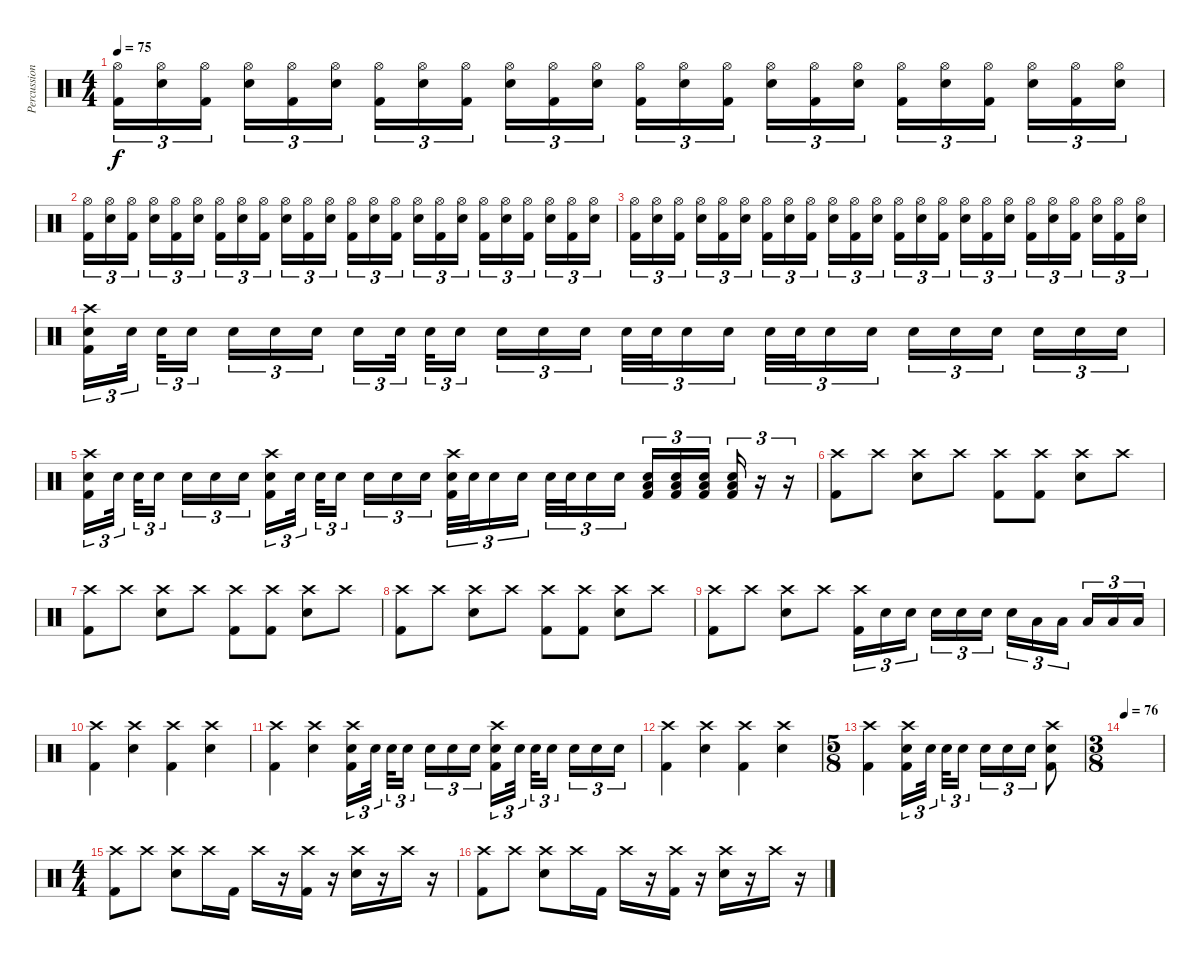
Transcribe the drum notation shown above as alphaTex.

\track ("Percussion" "Percussion") {instrument percussion}
\staff {score}
\articulation defaults
\ts (4 4)
\tempo 75
\clef neutral
\ks c
("Hi-Hat (open)" "Kick (hit) 2").16{tu (3 2) dy f} ("Hi-Hat (open)" "Electric Snare (hit)").16{tu (3 2)} ("Hi-Hat (open)" "Kick (hit) 2").16{tu (3 2) beam splitsecondary} ("Hi-Hat (open)" "Electric Snare (hit)").16{tu (3 2)} ("Hi-Hat (open)" "Kick (hit) 2").16{tu (3 2)} ("Hi-Hat (open)" "Electric Snare (hit)").16{tu (3 2)} ("Hi-Hat (open)" "Kick (hit) 2").16{tu (3 2)} ("Hi-Hat (open)" "Electric Snare (hit)").16{tu (3 2)} ("Hi-Hat (open)" "Kick (hit) 2").16{tu (3 2) beam splitsecondary} ("Hi-Hat (open)" "Electric Snare (hit)").16{tu (3 2)} ("Hi-Hat (open)" "Kick (hit) 2").16{tu (3 2)} ("Hi-Hat (open)" "Electric Snare (hit)").16{tu (3 2)} ("Hi-Hat (open)" "Kick (hit) 2").16{tu (3 2)} ("Hi-Hat (open)" "Electric Snare (hit)").16{tu (3 2)} ("Hi-Hat (open)" "Kick (hit) 2").16{tu (3 2) beam splitsecondary} ("Hi-Hat (open)" "Electric Snare (hit)").16{tu (3 2)} ("Hi-Hat (open)" "Kick (hit) 2").16{tu (3 2)} ("Hi-Hat (open)" "Electric Snare (hit)").16{tu (3 2)} ("Hi-Hat (open)" "Kick (hit) 2").16{tu (3 2)} ("Hi-Hat (open)" "Electric Snare (hit)").16{tu (3 2)} ("Hi-Hat (open)" "Kick (hit) 2").16{tu (3 2) beam splitsecondary} ("Hi-Hat (open)" "Electric Snare (hit)").16{tu (3 2)} ("Hi-Hat (open)" "Kick (hit) 2").16{tu (3 2)} ("Hi-Hat (open)" "Electric Snare (hit)").16{tu (3 2)} |
("Hi-Hat (open)" "Kick (hit) 2").16{tu (3 2)} ("Hi-Hat (open)" "Electric Snare (hit)").16{tu (3 2)} ("Hi-Hat (open)" "Kick (hit) 2").16{tu (3 2) beam splitsecondary} ("Hi-Hat (open)" "Electric Snare (hit)").16{tu (3 2)} ("Hi-Hat (open)" "Kick (hit) 2").16{tu (3 2)} ("Hi-Hat (open)" "Electric Snare (hit)").16{tu (3 2)} ("Hi-Hat (open)" "Kick (hit) 2").16{tu (3 2)} ("Hi-Hat (open)" "Electric Snare (hit)").16{tu (3 2)} ("Hi-Hat (open)" "Kick (hit) 2").16{tu (3 2) beam splitsecondary} ("Hi-Hat (open)" "Electric Snare (hit)").16{tu (3 2)} ("Hi-Hat (open)" "Kick (hit) 2").16{tu (3 2)} ("Hi-Hat (open)" "Electric Snare (hit)").16{tu (3 2)} ("Hi-Hat (open)" "Kick (hit) 2").16{tu (3 2)} ("Hi-Hat (open)" "Electric Snare (hit)").16{tu (3 2)} ("Hi-Hat (open)" "Kick (hit) 2").16{tu (3 2) beam splitsecondary} ("Hi-Hat (open)" "Electric Snare (hit)").16{tu (3 2)} ("Hi-Hat (open)" "Kick (hit) 2").16{tu (3 2)} ("Hi-Hat (open)" "Electric Snare (hit)").16{tu (3 2)} ("Hi-Hat (open)" "Kick (hit) 2").16{tu (3 2)} ("Hi-Hat (open)" "Electric Snare (hit)").16{tu (3 2)} ("Hi-Hat (open)" "Kick (hit) 2").16{tu (3 2) beam splitsecondary} ("Hi-Hat (open)" "Electric Snare (hit)").16{tu (3 2)} ("Hi-Hat (open)" "Kick (hit) 2").16{tu (3 2)} ("Hi-Hat (open)" "Electric Snare (hit)").16{tu (3 2)} |
("Hi-Hat (open)" "Kick (hit) 2").16{tu (3 2)} ("Hi-Hat (open)" "Electric Snare (hit)").16{tu (3 2)} ("Hi-Hat (open)" "Kick (hit) 2").16{tu (3 2) beam splitsecondary} ("Hi-Hat (open)" "Electric Snare (hit)").16{tu (3 2)} ("Hi-Hat (open)" "Kick (hit) 2").16{tu (3 2)} ("Hi-Hat (open)" "Electric Snare (hit)").16{tu (3 2)} ("Hi-Hat (open)" "Kick (hit) 2").16{tu (3 2)} ("Hi-Hat (open)" "Electric Snare (hit)").16{tu (3 2)} ("Hi-Hat (open)" "Kick (hit) 2").16{tu (3 2) beam splitsecondary} ("Hi-Hat (open)" "Electric Snare (hit)").16{tu (3 2)} ("Hi-Hat (open)" "Kick (hit) 2").16{tu (3 2)} ("Hi-Hat (open)" "Electric Snare (hit)").16{tu (3 2)} ("Hi-Hat (open)" "Kick (hit) 2").16{tu (3 2)} ("Hi-Hat (open)" "Electric Snare (hit)").16{tu (3 2)} ("Hi-Hat (open)" "Kick (hit) 2").16{tu (3 2) beam splitsecondary} ("Hi-Hat (open)" "Electric Snare (hit)").16{tu (3 2)} ("Hi-Hat (open)" "Kick (hit) 2").16{tu (3 2)} ("Hi-Hat (open)" "Electric Snare (hit)").16{tu (3 2)} ("Hi-Hat (open)" "Kick (hit) 2").16{tu (3 2)} ("Hi-Hat (open)" "Electric Snare (hit)").16{tu (3 2)} ("Hi-Hat (open)" "Kick (hit) 2").16{tu (3 2) beam splitsecondary} ("Hi-Hat (open)" "Electric Snare (hit)").16{tu (3 2)} ("Hi-Hat (open)" "Kick (hit) 2").16{tu (3 2)} ("Hi-Hat (open)" "Electric Snare (hit)").16{tu (3 2)} |
("Crash high (hit)" "Electric Snare (hit)" "Kick (hit) 2").16{tu (3 2)} "Electric Snare (hit)".32{tu (3 2) beam splitsecondary} "Electric Snare (hit)".32{tu (3 2)} "Electric Snare (hit)".16{tu (3 2) beam splitsecondary} "Electric Snare (hit)".16{tu (3 2)} "Electric Snare (hit)".16{tu (3 2)} "Electric Snare (hit)".16{tu (3 2)} "Electric Snare (hit)".16{tu (3 2)} "Electric Snare (hit)".32{tu (3 2) beam splitsecondary} "Electric Snare (hit)".32{tu (3 2)} "Electric Snare (hit)".16{tu (3 2) beam splitsecondary} "Electric Snare (hit)".16{tu (3 2)} "Electric Snare (hit)".16{tu (3 2)} "Electric Snare (hit)".16{tu (3 2)} "Electric Snare (hit)".32{tu (3 2)} "Electric Snare (hit)".32{tu (3 2)} "Electric Snare (hit)".16{tu (3 2)} "Electric Snare (hit)".16{tu (3 2) beam splitsecondary} "Electric Snare (hit)".32{tu (3 2)} "Electric Snare (hit)".32{tu (3 2)} "Electric Snare (hit)".16{tu (3 2)} "Electric Snare (hit)".16{tu (3 2)} "Electric Snare (hit)".16{tu (3 2)} "Electric Snare (hit)".16{tu (3 2)} "Electric Snare (hit)".16{tu (3 2) beam splitsecondary} "Electric Snare (hit)".16{tu (3 2)} "Electric Snare (hit)".16{tu (3 2)} "Electric Snare (hit)".16{tu (3 2)} |
("Crash high (hit)" "Electric Snare (hit)" "Kick (hit) 2").16{tu (3 2)} "Electric Snare (hit)".32{tu (3 2) beam splitsecondary} "Electric Snare (hit)".32{tu (3 2)} "Electric Snare (hit)".16{tu (3 2) beam splitsecondary} "Electric Snare (hit)".16{tu (3 2)} "Electric Snare (hit)".16{tu (3 2)} "Electric Snare (hit)".16{tu (3 2)} ("Crash high (hit)" "Electric Snare (hit)" "Kick (hit) 2").16{tu (3 2)} "Electric Snare (hit)".32{tu (3 2) beam splitsecondary} "Electric Snare (hit)".32{tu (3 2)} "Electric Snare (hit)".16{tu (3 2) beam splitsecondary} "Electric Snare (hit)".16{tu (3 2)} "Electric Snare (hit)".16{tu (3 2)} "Electric Snare (hit)".16{tu (3 2)} ("Crash high (hit)" "Electric Snare (hit)" "Kick (hit) 2").32{tu (3 2)} "Electric Snare (hit)".32{tu (3 2)} "Electric Snare (hit)".16{tu (3 2)} "Electric Snare (hit)".16{tu (3 2) beam splitsecondary} "Electric Snare (hit)".32{tu (3 2)} "Electric Snare (hit)".32{tu (3 2)} "Electric Snare (hit)".16{tu (3 2)} "Electric Snare (hit)".16{tu (3 2)} ("Low Floor Tom (hit)" "Electric Snare (hit)" "Kick (hit) 2").16{tu (3 2)} ("Low Floor Tom (hit)" "Electric Snare (hit)" "Kick (hit) 2").16{tu (3 2)} ("Low Floor Tom (hit)" "Electric Snare (hit)" "Kick (hit) 2").16{tu (3 2) beam splitsecondary} ("Low Floor Tom (hit)" "Electric Snare (hit)" "Kick (hit) 2").16{tu (3 2)} r.16{tu (3 2)} r.16{tu (3 2)} |
("Crash high (hit)" "Kick (hit) 2").8 "Crash high (hit)".8 ("Crash high (hit)" "Electric Snare (hit)").8 "Crash high (hit)".8 ("Crash high (hit)" "Kick (hit) 2").8 ("Crash high (hit)" "Kick (hit) 2").8 ("Crash high (hit)" "Electric Snare (hit)").8 "Crash high (hit)".8 |
("Crash high (hit)" "Kick (hit) 2").8 "Crash high (hit)".8 ("Crash high (hit)" "Electric Snare (hit)").8 "Crash high (hit)".8 ("Crash high (hit)" "Kick (hit) 2").8 ("Crash high (hit)" "Kick (hit) 2").8 ("Crash high (hit)" "Electric Snare (hit)").8 "Crash high (hit)".8 |
("Crash high (hit)" "Kick (hit) 2").8 "Crash high (hit)".8 ("Crash high (hit)" "Electric Snare (hit)").8 "Crash high (hit)".8 ("Crash high (hit)" "Kick (hit) 2").8 ("Crash high (hit)" "Kick (hit) 2").8 ("Crash high (hit)" "Electric Snare (hit)").8 "Crash high (hit)".8 |
("Crash high (hit)" "Kick (hit) 2").8 "Crash high (hit)".8 ("Crash high (hit)" "Electric Snare (hit)").8 "Crash high (hit)".8 ("Crash high (hit)" "Kick (hit) 2").16{tu (3 2)} "Electric Snare (hit)".16{tu (3 2)} "Electric Snare (hit)".16{tu (3 2) beam splitsecondary} "Electric Snare (hit)".16{tu (3 2)} "Electric Snare (hit)".16{tu (3 2)} "Electric Snare (hit)".16{tu (3 2)} "Electric Snare (hit)".16{tu (3 2)} "Low Tom (hit)".16{tu (3 2)} "Low Tom (hit)".16{tu (3 2) beam splitsecondary} "Low Floor Tom (hit)".16{tu (3 2)} "Low Floor Tom (hit)".16{tu (3 2)} "Low Floor Tom (hit)".16{tu (3 2)} |
("Crash high (hit)" "Kick (hit) 2").4 ("Crash high (hit)" "Electric Snare (hit)").4 ("Crash high (hit)" "Kick (hit) 2").4 ("Crash high (hit)" "Electric Snare (hit)").4 |
("Crash high (hit)" "Kick (hit) 2").4 ("Crash high (hit)" "Electric Snare (hit)").4 ("Crash high (hit)" "Electric Snare (hit)" "Kick (hit) 2").16{tu (3 2)} "Electric Snare (hit)".32{tu (3 2) beam splitsecondary} "Electric Snare (hit)".32{tu (3 2)} "Electric Snare (hit)".16{tu (3 2) beam splitsecondary} "Electric Snare (hit)".16{tu (3 2)} "Electric Snare (hit)".16{tu (3 2)} "Electric Snare (hit)".16{tu (3 2)} ("Crash high (hit)" "Electric Snare (hit)" "Kick (hit) 2").16{tu (3 2)} "Electric Snare (hit)".32{tu (3 2) beam splitsecondary} "Electric Snare (hit)".32{tu (3 2)} "Electric Snare (hit)".16{tu (3 2) beam splitsecondary} "Electric Snare (hit)".16{tu (3 2)} "Electric Snare (hit)".16{tu (3 2)} "Electric Snare (hit)".16{tu (3 2)} |
("Crash high (hit)" "Kick (hit) 2").4 ("Crash high (hit)" "Electric Snare (hit)").4 ("Crash high (hit)" "Kick (hit) 2").4 ("Crash high (hit)" "Electric Snare (hit)").4 |
\ts (5 8)
("Crash high (hit)" "Kick (hit) 2").4 ("Crash high (hit)" "Electric Snare (hit)" "Kick (hit) 2").16{tu (3 2)} "Electric Snare (hit)".32{tu (3 2) beam splitsecondary} "Electric Snare (hit)".32{tu (3 2)} "Electric Snare (hit)".16{tu (3 2)} "Electric Snare (hit)".16{tu (3 2)} "Electric Snare (hit)".16{tu (3 2)} "Electric Snare (hit)".16{tu (3 2)} ("Crash high (hit)" "Electric Snare (hit)" "Kick (hit) 2").8 |
\ts (3 8)
\tempo 76
|
\ts (4 4)
("Crash high (hit)" "Kick (hit) 2").8 "Crash high (hit)".8 ("Crash high (hit)" "Electric Snare (hit)").8 "Crash high (hit)".16 "Kick (hit) 2".16 "Crash high (hit)".16 r.16 ("Crash high (hit)" "Kick (hit) 2").16 r.16 ("Crash high (hit)" "Electric Snare (hit)").16 r.16 "Crash high (hit)".16 r.16 |
("Crash high (hit)" "Kick (hit) 2").8 "Crash high (hit)".8 ("Crash high (hit)" "Electric Snare (hit)").8 "Crash high (hit)".16 "Kick (hit) 2".16 "Crash high (hit)".16 r.16 ("Crash high (hit)" "Kick (hit) 2").16 r.16 ("Crash high (hit)" "Electric Snare (hit)").16 r.16 "Crash high (hit)".16 r.16
